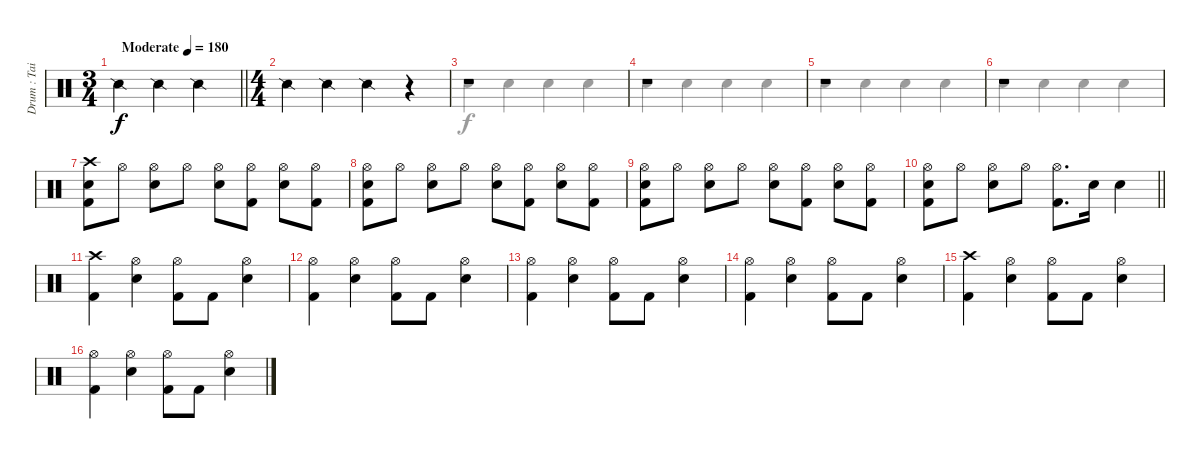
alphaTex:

\track ("Drum : Tainaka Ritsu - Chan" "Drum : Tai") {instrument percussion}
\staff {score}
\articulation defaults
\voice
\ts (3 4)
\tempo (180 "Moderate")
\clef neutral
\barLineRight lightlight
\ks c "Snare (side stick) 2".4{dy f} "Snare (side stick) 2".4 "Snare (side stick) 2".4
|
\ts (4 4)
"Snare (side stick) 2".4 "Snare (side stick) 2".4 "Snare (side stick) 2".4 r.4 |
r.1 |
r.1 |
r.1 |
r.1 |
("Crash high (hit)" "Electric Snare (hit)" "Kick (hit) 2").8 "Hi-Hat (open)".8 ("Hi-Hat (open)" "Electric Snare (hit)").8 "Hi-Hat (open)".8 ("Hi-Hat (open)" "Electric Snare (hit)").8 ("Hi-Hat (open)" "Kick (hit) 2").8 ("Hi-Hat (open)" "Electric Snare (hit)").8 ("Hi-Hat (open)" "Kick (hit) 2").8 |
("Hi-Hat (open)" "Electric Snare (hit)" "Kick (hit) 2").8 "Hi-Hat (open)".8 ("Hi-Hat (open)" "Electric Snare (hit)").8 "Hi-Hat (open)".8 ("Hi-Hat (open)" "Electric Snare (hit)").8 ("Hi-Hat (open)" "Kick (hit) 2").8 ("Hi-Hat (open)" "Electric Snare (hit)").8 ("Hi-Hat (open)" "Kick (hit) 2").8 |
("Hi-Hat (open)" "Electric Snare (hit)" "Kick (hit) 2").8 "Hi-Hat (open)".8 ("Hi-Hat (open)" "Electric Snare (hit)").8 "Hi-Hat (open)".8 ("Hi-Hat (open)" "Electric Snare (hit)").8 ("Hi-Hat (open)" "Kick (hit) 2").8 ("Hi-Hat (open)" "Electric Snare (hit)").8 ("Hi-Hat (open)" "Kick (hit) 2").8 |
\barLineRight lightlight
("Hi-Hat (open)" "Electric Snare (hit)" "Kick (hit) 2").8 "Hi-Hat (open)".8 ("Hi-Hat (open)" "Electric Snare (hit)").8 "Hi-Hat (open)".8 ("Hi-Hat (open)" "Kick (hit) 2").8{d} "Electric Snare (hit)".16 "Electric Snare (hit)".4 |
("Crash high (hit)" "Kick (hit) 2").4 ("Hi-Hat (open)" "Electric Snare (hit)").4 ("Hi-Hat (open)" "Kick (hit) 2").8 "Kick (hit) 2".8 ("Hi-Hat (open)" "Electric Snare (hit)").4 |
("Hi-Hat (open)" "Kick (hit) 2").4 ("Hi-Hat (open)" "Electric Snare (hit)").4 ("Hi-Hat (open)" "Kick (hit) 2").8 "Kick (hit) 2".8 ("Hi-Hat (open)" "Electric Snare (hit)").4 |
("Hi-Hat (open)" "Kick (hit) 2").4 ("Hi-Hat (open)" "Electric Snare (hit)").4 ("Hi-Hat (open)" "Kick (hit) 2").8 "Kick (hit) 2".8 ("Hi-Hat (open)" "Electric Snare (hit)").4 |
("Hi-Hat (open)" "Kick (hit) 2").4 ("Hi-Hat (open)" "Electric Snare (hit)").4 ("Hi-Hat (open)" "Kick (hit) 2").8 "Kick (hit) 2".8 ("Hi-Hat (open)" "Electric Snare (hit)").4 |
("Crash high (hit)" "Kick (hit) 2").4 ("Hi-Hat (open)" "Electric Snare (hit)").4 ("Hi-Hat (open)" "Kick (hit) 2").8 "Kick (hit) 2".8 ("Hi-Hat (open)" "Electric Snare (hit)").4 |
("Hi-Hat (open)" "Kick (hit) 2").4 ("Hi-Hat (open)" "Electric Snare (hit)").4 ("Hi-Hat (open)" "Kick (hit) 2").8 "Kick (hit) 2".8 ("Hi-Hat (open)" "Electric Snare (hit)").4
\voice
\clef neutral
\ottava regular
\simile none
\barLineRight lightlight
\ks c
|
|
"Hand Clap (hit)".4 "Hand Clap (hit)".4 "Hand Clap (hit)".4 "Hand Clap (hit)".4 |
"Hand Clap (hit)".4 "Hand Clap (hit)".4 "Hand Clap (hit)".4 "Hand Clap (hit)".4 |
"Hand Clap (hit)".4 "Hand Clap (hit)".4 "Hand Clap (hit)".4 "Hand Clap (hit)".4 |
"Hand Clap (hit)".4 "Hand Clap (hit)".4 "Hand Clap (hit)".4 "Hand Clap (hit)".4 |
|
|
|
\barLineRight lightlight
|
|
|
|
|
|
